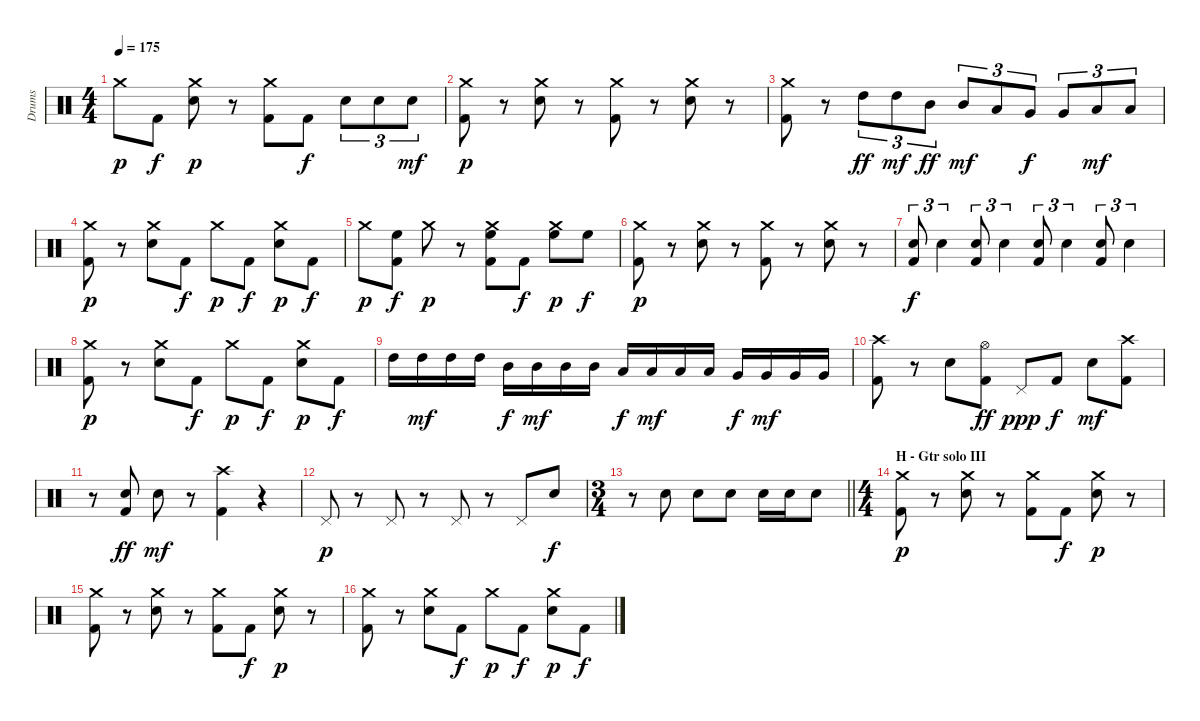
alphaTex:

\track ("Drums" "Drums") {instrument percussion}
\staff {score}
\articulation defaults
\ts (4 4)
\tempo 175
\clef neutral
\ks c "Crash medium (hit)".8{dy p} "Kick (hit) 2".8{dy f}
("Crash medium (hit)" "Electric Snare (hit)").8{dy p} r.8 ("Crash medium (hit)" "Kick (hit) 2").8 "Kick (hit) 2".8{dy f} "Electric Snare (hit)".8{tu (3 2)} "Electric Snare (hit)".8{tu (3 2)} "Electric Snare (hit)".8{tu (3 2) dy mf} |
("Crash medium (hit)" "Kick (hit) 2").8{dy p} r.8 ("Crash medium (hit)" "Electric Snare (hit)").8 r.8 ("Crash medium (hit)" "Kick (hit) 2").8 r.8 ("Crash medium (hit)" "Electric Snare (hit)").8 r.8 |
("Crash medium (hit)" "Kick (hit) 2").8 r.8 "High Tom (hit)".8{tu (3 2) dy ff} "High Tom (hit)".8{tu (3 2) dy mf} "Mid Tom (hit)".8{tu (3 2) dy ff} "Mid Tom (hit)".8{tu (3 2) dy mf} "Low Tom (hit)".8{tu (3 2)} "Very Low Tom (hit)".8{tu (3 2) dy f} "Very Low Tom (hit)".8{tu (3 2)} "Low Floor Tom (hit)".8{tu (3 2) dy mf} "Low Floor Tom (hit)".8{tu (3 2)} |
("Crash medium (hit)" "Kick (hit) 2").8{dy p} r.8 ("Crash medium (hit)" "Electric Snare (hit)").8 "Kick (hit) 2".8{dy f} "Crash medium (hit)".8{dy p} "Kick (hit) 2".8{dy f} ("Crash medium (hit)" "Electric Snare (hit)").8{dy p} "Kick (hit) 2".8{dy f} |
"Crash medium (hit)".8{dy p} ("High Floor Tom (hit)" "Kick (hit) 2").8{dy f} "Crash medium (hit)".8{dy p} r.8 ("Crash medium (hit)" "High Floor Tom (hit)" "Kick (hit) 2").8 "Kick (hit) 2".8{dy f} ("Crash medium (hit)" "High Floor Tom (hit)").8{dy p} "High Floor Tom (hit)".8{dy f} |
("Crash medium (hit)" "Kick (hit) 2").8{dy p} r.8 ("Crash medium (hit)" "Electric Snare (hit)").8 r.8 ("Crash medium (hit)" "Kick (hit) 2").8 r.8 ("Crash medium (hit)" "Electric Snare (hit)").8 r.8 |
("Electric Snare (hit)" "Kick (hit) 2").8{tu (3 2) dy f} "Electric Snare (hit)".4{tu (3 2)} ("Electric Snare (hit)" "Kick (hit) 2").8{tu (3 2)} "Electric Snare (hit)".4{tu (3 2)} ("Electric Snare (hit)" "Kick (hit) 2").8{tu (3 2)} "Electric Snare (hit)".4{tu (3 2)} ("Electric Snare (hit)" "Kick (hit) 2").8{tu (3 2)} "Electric Snare (hit)".4{tu (3 2)} |
("Crash medium (hit)" "Kick (hit) 2").8{dy p} r.8 ("Crash medium (hit)" "Electric Snare (hit)").8 "Kick (hit) 2".8{dy f} "Crash medium (hit)".8{dy p} "Kick (hit) 2".8{dy f} ("Crash medium (hit)" "Electric Snare (hit)").8{dy p} "Kick (hit) 2".8{dy f} |
"High Tom (hit)".16 "High Tom (hit)".16{dy mf} "High Tom (hit)".16 "High Tom (hit)".16 "Mid Tom (hit)".16{dy f} "Mid Tom (hit)".16{dy mf} "Mid Tom (hit)".16 "Mid Tom (hit)".16 "Low Tom (hit)".16{dy f} "Low Tom (hit)".16{dy mf} "Low Tom (hit)".16 "Low Tom (hit)".16 "Very Low Tom (hit)".16{dy f} "Very Low Tom (hit)".16{dy mf} "Very Low Tom (hit)".16 "Very Low Tom (hit)".16 |
("Crash high (hit)" "Kick (hit) 2").8 r.8 "Electric Snare (hit)".8 ("Hi-Hat (open)" "Kick (hit) 2").8{dy ff} "Pedal Hi-Hat (hit)".8{dy ppp} "Kick (hit) 2".8{dy f} "Electric Snare (hit)".8{dy mf} ("Crash high (hit)" "Kick (hit) 2").8 |
r.8 ("Electric Snare (hit)" "Kick (hit) 2").8{dy ff} "Electric Snare (hit)".8{dy mf} r.8 ("Crash high (hit)" "Kick (hit) 2").4 r.4 |
"Pedal Hi-Hat (hit)".8{dy p} r.8 "Pedal Hi-Hat (hit)".8 r.8 "Pedal Hi-Hat (hit)".8 r.8 "Pedal Hi-Hat (hit)".8 "Electric Snare (hit)".8{dy f} |
\ts (3 4)
\barLineRight lightlight
r.8 "Electric Snare (hit)".8 "Electric Snare (hit)".8 "Electric Snare (hit)".8 "Electric Snare (hit)".16 "Electric Snare (hit)".16 "Electric Snare (hit)".8 |
\ts (4 4)
\section ("" "H - Gtr solo III")
("Crash medium (hit)" "Kick (hit) 2").8{dy p} r.8 ("Crash medium (hit)" "Electric Snare (hit)").8 r.8 ("Crash medium (hit)" "Kick (hit) 2").8 "Kick (hit) 2".8{dy f} ("Crash medium (hit)" "Electric Snare (hit)").8{dy p} r.8 |
("Crash medium (hit)" "Kick (hit) 2").8 r.8 ("Crash medium (hit)" "Electric Snare (hit)").8 r.8 ("Crash medium (hit)" "Kick (hit) 2").8 "Kick (hit) 2".8{dy f} ("Crash medium (hit)" "Electric Snare (hit)").8{dy p} r.8 |
("Crash medium (hit)" "Kick (hit) 2").8 r.8 ("Crash medium (hit)" "Electric Snare (hit)").8 "Kick (hit) 2".8{dy f} "Crash medium (hit)".8{dy p} "Kick (hit) 2".8{dy f} ("Crash medium (hit)" "Electric Snare (hit)").8{dy p} "Kick (hit) 2".8{dy f}
